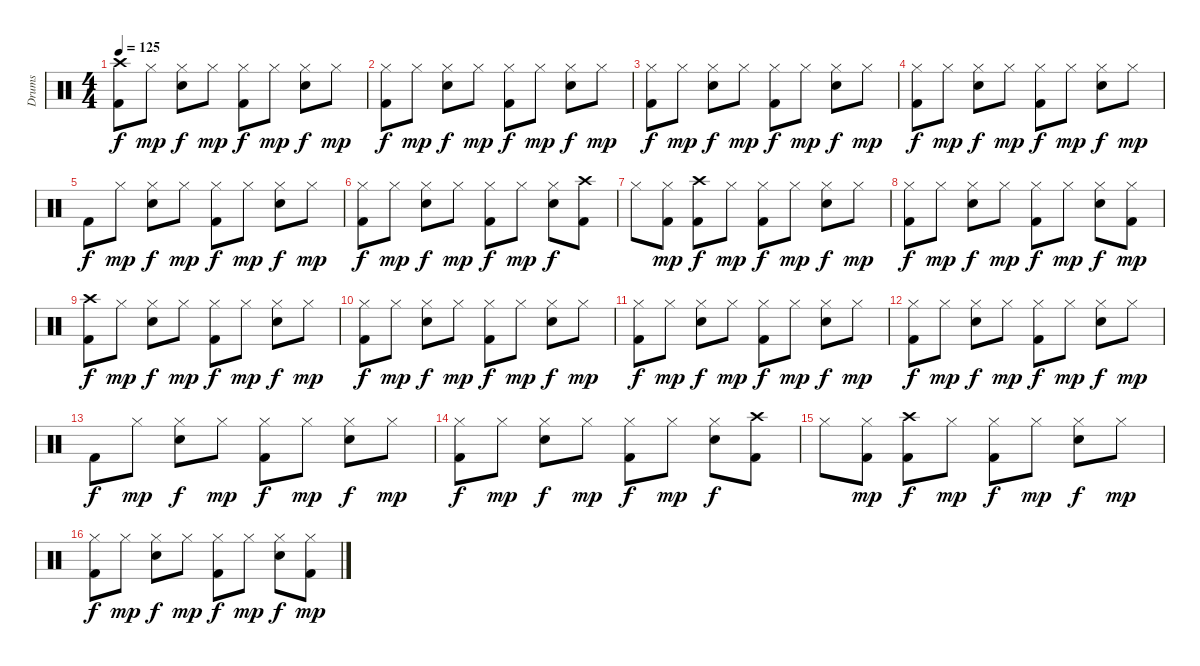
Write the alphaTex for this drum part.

\track ("Drums" "Drums") {instrument percussion}
\staff {score}
\articulation defaults
\ts (4 4)
\tempo 125
\clef neutral
\ks c
("Crash high (hit)" "Kick (hit) 2").8{dy f} "Hi-Hat (closed)".8{dy mp} ("Hi-Hat (closed)" "Snare (hit) 2").8{dy f} "Hi-Hat (closed)".8{dy mp} ("Hi-Hat (closed)" "Kick (hit) 2").8{dy f} "Hi-Hat (closed)".8{dy mp} ("Hi-Hat (closed)" "Snare (hit) 2").8{dy f} "Hi-Hat (closed)".8{dy mp} |
("Hi-Hat (closed)" "Kick (hit) 2").8{dy f} "Hi-Hat (closed)".8{dy mp} ("Hi-Hat (closed)" "Snare (hit) 2").8{dy f} "Hi-Hat (closed)".8{dy mp} ("Hi-Hat (closed)" "Kick (hit) 2").8{dy f} "Hi-Hat (closed)".8{dy mp} ("Hi-Hat (closed)" "Snare (hit) 2").8{dy f} "Hi-Hat (closed)".8{dy mp} |
("Hi-Hat (closed)" "Kick (hit) 2").8{dy f} "Hi-Hat (closed)".8{dy mp} ("Hi-Hat (closed)" "Snare (hit) 2").8{dy f} "Hi-Hat (closed)".8{dy mp} ("Hi-Hat (closed)" "Kick (hit) 2").8{dy f} "Hi-Hat (closed)".8{dy mp} ("Hi-Hat (closed)" "Snare (hit) 2").8{dy f} "Hi-Hat (closed)".8{dy mp} |
("Hi-Hat (closed)" "Kick (hit) 2").8{dy f} "Hi-Hat (closed)".8{dy mp} ("Hi-Hat (closed)" "Snare (hit) 2").8{dy f} "Hi-Hat (closed)".8{dy mp} ("Hi-Hat (closed)" "Kick (hit) 2").8{dy f} "Hi-Hat (closed)".8{dy mp} ("Hi-Hat (closed)" "Snare (hit) 2").8{dy f} "Hi-Hat (closed)".8{dy mp} |
"Kick (hit) 2".8{dy f} "Hi-Hat (closed)".8{dy mp} ("Hi-Hat (closed)" "Snare (hit) 2").8{dy f} "Hi-Hat (closed)".8{dy mp} ("Hi-Hat (closed)" "Kick (hit) 2").8{dy f} "Hi-Hat (closed)".8{dy mp} ("Hi-Hat (closed)" "Snare (hit) 2").8{dy f} "Hi-Hat (closed)".8{dy mp} |
("Hi-Hat (closed)" "Kick (hit) 2").8{dy f} "Hi-Hat (closed)".8{dy mp} ("Hi-Hat (closed)" "Snare (hit) 2").8{dy f} "Hi-Hat (closed)".8{dy mp} ("Hi-Hat (closed)" "Kick (hit) 2").8{dy f} "Hi-Hat (closed)".8{dy mp} ("Hi-Hat (closed)" "Snare (hit) 2").8{dy f} ("Crash high (hit)" "Kick (hit) 2").8 |
"Hi-Hat (closed)".8 ("Hi-Hat (closed)" "Kick (hit) 2").8{dy mp} ("Crash high (hit)" "Kick (hit) 2").8{dy f} "Hi-Hat (closed)".8{dy mp} ("Hi-Hat (closed)" "Kick (hit) 2").8{dy f} "Hi-Hat (closed)".8{dy mp} ("Hi-Hat (closed)" "Snare (hit) 2").8{dy f} "Hi-Hat (closed)".8{dy mp} |
("Hi-Hat (closed)" "Kick (hit) 2").8{dy f} "Hi-Hat (closed)".8{dy mp} ("Hi-Hat (closed)" "Snare (hit) 2").8{dy f} "Hi-Hat (closed)".8{dy mp} ("Hi-Hat (closed)" "Kick (hit) 2").8{dy f} "Hi-Hat (closed)".8{dy mp} ("Hi-Hat (closed)" "Snare (hit) 2").8{dy f} ("Hi-Hat (closed)" "Kick (hit) 2").8{dy mp} |
("Crash high (hit)" "Kick (hit) 2").8{dy f} "Hi-Hat (closed)".8{dy mp} ("Hi-Hat (closed)" "Snare (hit) 2").8{dy f} "Hi-Hat (closed)".8{dy mp} ("Hi-Hat (closed)" "Kick (hit) 2").8{dy f} "Hi-Hat (closed)".8{dy mp} ("Hi-Hat (closed)" "Snare (hit) 2").8{dy f} "Hi-Hat (closed)".8{dy mp} |
("Hi-Hat (closed)" "Kick (hit) 2").8{dy f} "Hi-Hat (closed)".8{dy mp} ("Hi-Hat (closed)" "Snare (hit) 2").8{dy f} "Hi-Hat (closed)".8{dy mp} ("Hi-Hat (closed)" "Kick (hit) 2").8{dy f} "Hi-Hat (closed)".8{dy mp} ("Hi-Hat (closed)" "Snare (hit) 2").8{dy f} "Hi-Hat (closed)".8{dy mp} |
("Hi-Hat (closed)" "Kick (hit) 2").8{dy f} "Hi-Hat (closed)".8{dy mp} ("Hi-Hat (closed)" "Snare (hit) 2").8{dy f} "Hi-Hat (closed)".8{dy mp} ("Hi-Hat (closed)" "Kick (hit) 2").8{dy f} "Hi-Hat (closed)".8{dy mp} ("Hi-Hat (closed)" "Snare (hit) 2").8{dy f} "Hi-Hat (closed)".8{dy mp} |
("Hi-Hat (closed)" "Kick (hit) 2").8{dy f} "Hi-Hat (closed)".8{dy mp} ("Hi-Hat (closed)" "Snare (hit) 2").8{dy f} "Hi-Hat (closed)".8{dy mp} ("Hi-Hat (closed)" "Kick (hit) 2").8{dy f} "Hi-Hat (closed)".8{dy mp} ("Hi-Hat (closed)" "Snare (hit) 2").8{dy f} "Hi-Hat (closed)".8{dy mp} |
"Kick (hit) 2".8{dy f} "Hi-Hat (closed)".8{dy mp} ("Hi-Hat (closed)" "Snare (hit) 2").8{dy f} "Hi-Hat (closed)".8{dy mp} ("Hi-Hat (closed)" "Kick (hit) 2").8{dy f} "Hi-Hat (closed)".8{dy mp} ("Hi-Hat (closed)" "Snare (hit) 2").8{dy f} "Hi-Hat (closed)".8{dy mp} |
("Hi-Hat (closed)" "Kick (hit) 2").8{dy f} "Hi-Hat (closed)".8{dy mp} ("Hi-Hat (closed)" "Snare (hit) 2").8{dy f} "Hi-Hat (closed)".8{dy mp} ("Hi-Hat (closed)" "Kick (hit) 2").8{dy f} "Hi-Hat (closed)".8{dy mp} ("Hi-Hat (closed)" "Snare (hit) 2").8{dy f} ("Crash high (hit)" "Kick (hit) 2").8 |
"Hi-Hat (closed)".8 ("Hi-Hat (closed)" "Kick (hit) 2").8{dy mp} ("Crash high (hit)" "Kick (hit) 2").8{dy f} "Hi-Hat (closed)".8{dy mp} ("Hi-Hat (closed)" "Kick (hit) 2").8{dy f} "Hi-Hat (closed)".8{dy mp} ("Hi-Hat (closed)" "Snare (hit) 2").8{dy f} "Hi-Hat (closed)".8{dy mp} |
("Hi-Hat (closed)" "Kick (hit) 2").8{dy f} "Hi-Hat (closed)".8{dy mp} ("Hi-Hat (closed)" "Snare (hit) 2").8{dy f} "Hi-Hat (closed)".8{dy mp} ("Hi-Hat (closed)" "Kick (hit) 2").8{dy f} "Hi-Hat (closed)".8{dy mp} ("Hi-Hat (closed)" "Snare (hit) 2").8{dy f} ("Hi-Hat (closed)" "Kick (hit) 2").8{dy mp}
